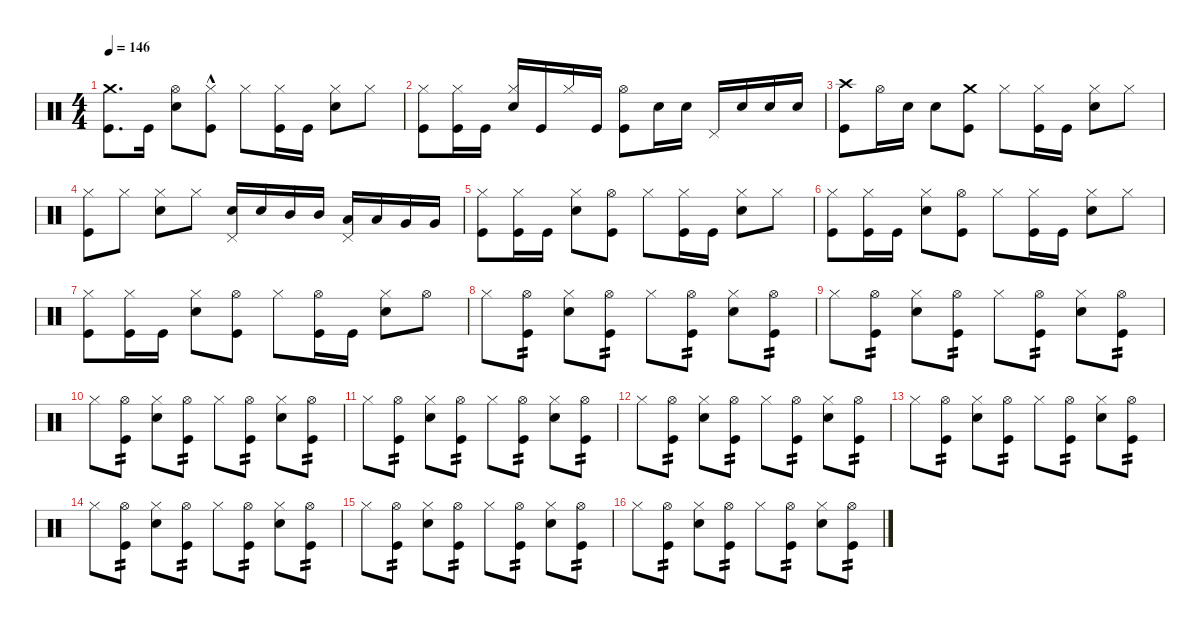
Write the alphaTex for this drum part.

\defaultSystemsLayout 4
\hideDynamics
\bracketExtendMode nobrackets
\singleTrackTrackNamePolicy hidden
\multiTrackTrackNamePolicy hidden
\firstSystemTrackNameMode fullname
\firstSystemTrackNameOrientation horizontal
\otherSystemsTrackNameOrientation horizontal
\track ("Drums" "drm.") {instrument percussion}
\staff {score}
\articulation defaults
\ts (4 4)
\tempo 146
\clef neutral
\ks c
("Crash medium (hit)" "Kick (hit)").8{d dy f beam Down} "Kick (hit)".16{beam Down} ("Hi-Hat (open)" "Snare (hit) 2").8{beam Down} ("Hi-Hat (closed)"{hac} "Kick (hit)"{hac}).8{beam Down} "Hi-Hat (closed)".8{beam Down} ("Hi-Hat (closed)" "Kick (hit)").16{beam Down} "Kick (hit)".16{beam Down} ("Hi-Hat (closed)" "Snare (hit) 2").8{beam Down} "Hi-Hat (closed)".8{beam Down} |
("Hi-Hat (closed)" "Kick (hit)").8{beam Down} ("Hi-Hat (closed)" "Kick (hit)").16{beam Down} "Kick (hit)".16{beam Down} ("Hi-Hat (closed)" "Snare (hit) 2").16{beam Up} "Kick (hit)".16{beam Up} "Hi-Hat (closed)".16{beam Up} "Kick (hit)".16{beam Up} ("Hi-Hat (open)" "Kick (hit)").8{beam Down} "Snare (hit) 2".16{beam Down} "Snare (hit) 2".16{beam Down} "Pedal Hi-Hat (hit)".16{beam Up} "Snare (hit) 2".16{beam Up} "Snare (hit) 2".16{beam Up} "Snare (hit) 2".16{beam Up} |
("Crash high (hit)" "Kick (hit)").8{beam Down} "Hi-Hat (open)".16{beam Down} "Snare (hit) 2".16{beam Down} "Snare (hit) 2".8{beam Down} ("Crash medium (hit)" "Kick (hit)").8{beam Down} "Hi-Hat (closed)".8{beam Down} ("Hi-Hat (closed)" "Kick (hit)").16{beam Down} "Kick (hit)".16{beam Down} ("Hi-Hat (closed)" "Snare (hit) 2").8{beam Down} "Hi-Hat (closed)".8{beam Down} |
("Hi-Hat (closed)" "Kick (hit)").8{beam Down} "Hi-Hat (closed)".8{beam Down} ("Hi-Hat (closed)" "Snare (hit) 2").8{beam Down} "Hi-Hat (closed)".8{beam Down} ("Pedal Hi-Hat (hit)" "Snare (hit) 2").16{beam Up} "Snare (hit) 2".16{beam Up} "Mid Tom (hit)".16{beam Up} "Mid Tom (hit)".16{beam Up} ("Pedal Hi-Hat (hit)" "Low Tom (hit)").16{beam Up} "Low Tom (hit)".16{beam Up} "Very Low Tom (hit)".16{beam Up} "Very Low Tom (hit)".16{beam Up} |
("Hi-Hat (closed)" "Kick (hit)").8{beam Down} ("Hi-Hat (closed)" "Kick (hit)").16{beam Down} "Kick (hit)".16{beam Down} ("Hi-Hat (closed)" "Snare (hit) 2").8{beam Down} ("Hi-Hat (open)" "Kick (hit)").8{beam Down} "Hi-Hat (closed)".8{beam Down} ("Hi-Hat (closed)" "Kick (hit)").16{beam Down} "Kick (hit)".16{beam Down} ("Hi-Hat (closed)" "Snare (hit) 2").8{beam Down} "Hi-Hat (closed)".8{beam Down} |
("Hi-Hat (closed)" "Kick (hit)").8{beam Down} ("Hi-Hat (closed)" "Kick (hit)").16{beam Down} "Kick (hit)".16{beam Down} ("Hi-Hat (closed)" "Snare (hit) 2").8{beam Down} ("Hi-Hat (open)" "Kick (hit)").8{beam Down} "Hi-Hat (closed)".8{beam Down} ("Hi-Hat (closed)" "Kick (hit)").16{beam Down} "Kick (hit)".16{beam Down} ("Hi-Hat (closed)" "Snare (hit) 2").8{beam Down} "Hi-Hat (closed)".8{beam Down} |
("Hi-Hat (closed)" "Kick (hit)").8{beam Down} ("Hi-Hat (closed)" "Kick (hit)").16{beam Down} "Kick (hit)".16{beam Down} ("Hi-Hat (closed)" "Snare (hit) 2").8{beam Down} ("Hi-Hat (open)" "Kick (hit)").8{beam Down} "Hi-Hat (closed)".8{beam Down} ("Hi-Hat (open)" "Kick (hit)").16{beam Down} "Kick (hit)".16{beam Down} ("Hi-Hat (closed)" "Snare (hit) 2").8{beam Down} "Hi-Hat (open)".8{beam Down} |
"Hi-Hat (closed)".8{beam Down} ("Hi-Hat (open)" "Kick (hit)").8{tp 2 beam Down} ("Hi-Hat (closed)" "Snare (hit) 2").8{beam Down} ("Hi-Hat (open)" "Kick (hit)").8{tp 2 beam Down} "Hi-Hat (closed)".8{beam Down} ("Hi-Hat (open)" "Kick (hit)").8{tp 2 beam Down} ("Hi-Hat (closed)" "Snare (hit) 2").8{beam Down} ("Hi-Hat (open)" "Kick (hit)").8{tp 2 beam Down} |
"Hi-Hat (closed)".8{beam Down} ("Hi-Hat (open)" "Kick (hit)").8{tp 2 beam Down} ("Hi-Hat (closed)" "Snare (hit) 2").8{beam Down} ("Hi-Hat (open)" "Kick (hit)").8{tp 2 beam Down} "Hi-Hat (closed)".8{beam Down} ("Hi-Hat (open)" "Kick (hit)").8{tp 2 beam Down} ("Hi-Hat (closed)" "Snare (hit) 2").8{beam Down} ("Hi-Hat (open)" "Kick (hit)").8{tp 2 beam Down} |
"Hi-Hat (closed)".8{beam Down} ("Hi-Hat (open)" "Kick (hit)").8{tp 2 beam Down} ("Hi-Hat (closed)" "Snare (hit) 2").8{beam Down} ("Hi-Hat (open)" "Kick (hit)").8{tp 2 beam Down} "Hi-Hat (closed)".8{beam Down} ("Hi-Hat (open)" "Kick (hit)").8{tp 2 beam Down} ("Hi-Hat (closed)" "Snare (hit) 2").8{beam Down} ("Hi-Hat (open)" "Kick (hit)").8{tp 2 beam Down} |
"Hi-Hat (closed)".8{beam Down} ("Hi-Hat (open)" "Kick (hit)").8{tp 2 beam Down} ("Hi-Hat (closed)" "Snare (hit) 2").8{beam Down} ("Hi-Hat (open)" "Kick (hit)").8{tp 2 beam Down} "Hi-Hat (closed)".8{beam Down} ("Hi-Hat (open)" "Kick (hit)").8{tp 2 beam Down} ("Hi-Hat (closed)" "Snare (hit) 2").8{beam Down} ("Hi-Hat (open)" "Kick (hit)").8{tp 2 beam Down} |
"Hi-Hat (closed)".8{beam Down} ("Hi-Hat (open)" "Kick (hit)").8{tp 2 beam Down} ("Hi-Hat (closed)" "Snare (hit) 2").8{beam Down} ("Hi-Hat (open)" "Kick (hit)").8{tp 2 beam Down} "Hi-Hat (closed)".8{beam Down} ("Hi-Hat (open)" "Kick (hit)").8{tp 2 beam Down} ("Hi-Hat (closed)" "Snare (hit) 2").8{beam Down} ("Hi-Hat (open)" "Kick (hit)").8{tp 2 beam Down} |
"Hi-Hat (closed)".8{beam Down} ("Hi-Hat (open)" "Kick (hit)").8{tp 2 beam Down} ("Hi-Hat (closed)" "Snare (hit) 2").8{beam Down} ("Hi-Hat (open)" "Kick (hit)").8{tp 2 beam Down} "Hi-Hat (closed)".8{beam Down} ("Hi-Hat (open)" "Kick (hit)").8{tp 2 beam Down} ("Hi-Hat (closed)" "Snare (hit) 2").8{beam Down} ("Hi-Hat (open)" "Kick (hit)").8{tp 2 beam Down} |
"Hi-Hat (closed)".8{beam Down} ("Hi-Hat (open)" "Kick (hit)").8{tp 2 beam Down} ("Hi-Hat (closed)" "Snare (hit) 2").8{beam Down} ("Hi-Hat (open)" "Kick (hit)").8{tp 2 beam Down} "Hi-Hat (closed)".8{beam Down} ("Hi-Hat (open)" "Kick (hit)").8{tp 2 beam Down} ("Hi-Hat (closed)" "Snare (hit) 2").8{beam Down} ("Hi-Hat (open)" "Kick (hit)").8{tp 2 beam Down} |
"Hi-Hat (closed)".8{beam Down} ("Hi-Hat (open)" "Kick (hit)").8{tp 2 beam Down} ("Hi-Hat (closed)" "Snare (hit) 2").8{beam Down} ("Hi-Hat (open)" "Kick (hit)").8{tp 2 beam Down} "Hi-Hat (closed)".8{beam Down} ("Hi-Hat (open)" "Kick (hit)").8{tp 2 beam Down} ("Hi-Hat (closed)" "Snare (hit) 2").8{beam Down} ("Hi-Hat (open)" "Kick (hit)").8{tp 2 beam Down} |
"Hi-Hat (closed)".8{beam Down} ("Hi-Hat (open)" "Kick (hit)").8{tp 2 beam Down} ("Hi-Hat (closed)" "Snare (hit) 2").8{beam Down} ("Hi-Hat (open)" "Kick (hit)").8{tp 2 beam Down} "Hi-Hat (closed)".8{beam Down} ("Hi-Hat (open)" "Kick (hit)").8{tp 2 beam Down} ("Hi-Hat (closed)" "Snare (hit) 2").8{beam Down} ("Hi-Hat (open)" "Kick (hit)").8{tp 2 beam Down}
